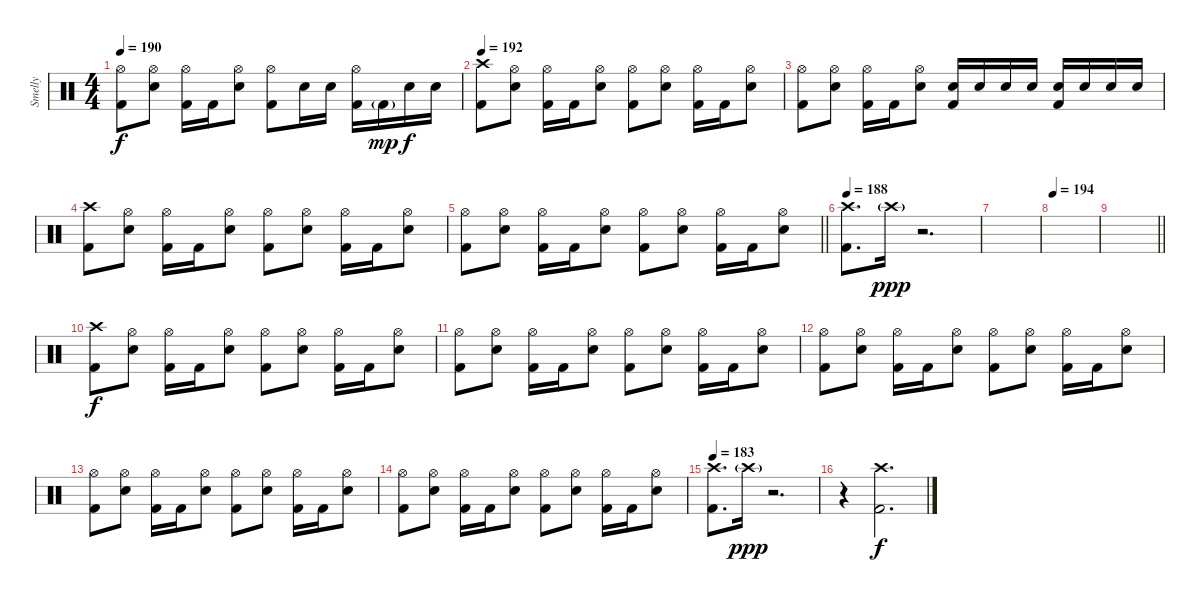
\track ("Smelly" "Smelly") {instrument percussion}
\staff {score}
\articulation defaults
\ts (4 4)
\tempo 190
\clef neutral
\ks c
("Hi-Hat (open)" "Kick (hit) 2").8{dy f} ("Hi-Hat (open)" "Electric Snare (hit)").8 ("Hi-Hat (open)" "Kick (hit) 2").16 "Kick (hit) 2".16 ("Hi-Hat (open)" "Electric Snare (hit)").8 ("Hi-Hat (open)" "Kick (hit) 2").8 "Electric Snare (hit)".16 "Electric Snare (hit)".16 ("Hi-Hat (open)" "Kick (hit) 2").16 "Kick (hit) 2"{g}.16{dy mp} "Electric Snare (hit)".16{dy f} "Electric Snare (hit)".16 |
\tempo 192
("Crash high (hit)" "Kick (hit) 2").8 ("Hi-Hat (open)" "Electric Snare (hit)").8 ("Hi-Hat (open)" "Kick (hit) 2").16 "Kick (hit) 2".16 ("Hi-Hat (open)" "Electric Snare (hit)").8 ("Hi-Hat (open)" "Kick (hit) 2").8 ("Hi-Hat (open)" "Electric Snare (hit)").8 ("Hi-Hat (open)" "Kick (hit) 2").16 "Kick (hit) 2".16 ("Hi-Hat (open)" "Electric Snare (hit)").8 |
("Hi-Hat (open)" "Kick (hit) 2").8 ("Hi-Hat (open)" "Electric Snare (hit)").8 ("Hi-Hat (open)" "Kick (hit) 2").16 "Kick (hit) 2".16 ("Hi-Hat (open)" "Electric Snare (hit)").8 ("Electric Snare (hit)" "Kick (hit) 2").16 "Electric Snare (hit)".16 "Electric Snare (hit)".16 "Electric Snare (hit)".16 ("Electric Snare (hit)" "Kick (hit) 2").16 "Electric Snare (hit)".16 "Electric Snare (hit)".16 "Electric Snare (hit)".16 |
("Crash high (hit)" "Kick (hit) 2").8 ("Hi-Hat (open)" "Electric Snare (hit)").8 ("Hi-Hat (open)" "Kick (hit) 2").16 "Kick (hit) 2".16 ("Hi-Hat (open)" "Electric Snare (hit)").8 ("Hi-Hat (open)" "Kick (hit) 2").8 ("Hi-Hat (open)" "Electric Snare (hit)").8 ("Hi-Hat (open)" "Kick (hit) 2").16 "Kick (hit) 2".16 ("Hi-Hat (open)" "Electric Snare (hit)").8 |
\barLineRight lightlight
("Hi-Hat (open)" "Kick (hit) 2").8 ("Hi-Hat (open)" "Electric Snare (hit)").8 ("Hi-Hat (open)" "Kick (hit) 2").16 "Kick (hit) 2".16 ("Hi-Hat (open)" "Electric Snare (hit)").8 ("Hi-Hat (open)" "Kick (hit) 2").8 ("Hi-Hat (open)" "Electric Snare (hit)").8 ("Hi-Hat (open)" "Kick (hit) 2").16 "Kick (hit) 2".16 ("Hi-Hat (open)" "Electric Snare (hit)").8 |
\section ("" "")
\tempo 188
("Crash high (hit)" "Kick (hit) 2").8{d} "Crash high (hit)"{g}.16{dy ppp} r.2{d} |
|
\tempo 194
|
\barLineRight lightlight
|
\section ("" "")
("Crash high (hit)" "Kick (hit) 2").8{dy f} ("Hi-Hat (open)" "Electric Snare (hit)").8 ("Hi-Hat (open)" "Kick (hit) 2").16 "Kick (hit) 2".16 ("Hi-Hat (open)" "Electric Snare (hit)").8 ("Hi-Hat (open)" "Kick (hit) 2").8 ("Hi-Hat (open)" "Electric Snare (hit)").8 ("Hi-Hat (open)" "Kick (hit) 2").16 "Kick (hit) 2".16 ("Hi-Hat (open)" "Electric Snare (hit)").8 |
("Hi-Hat (open)" "Kick (hit) 2").8 ("Hi-Hat (open)" "Electric Snare (hit)").8 ("Hi-Hat (open)" "Kick (hit) 2").16 "Kick (hit) 2".16 ("Hi-Hat (open)" "Electric Snare (hit)").8 ("Hi-Hat (open)" "Kick (hit) 2").8 ("Hi-Hat (open)" "Electric Snare (hit)").8 ("Hi-Hat (open)" "Kick (hit) 2").16 "Kick (hit) 2".16 ("Hi-Hat (open)" "Electric Snare (hit)").8 |
("Hi-Hat (open)" "Kick (hit) 2").8 ("Hi-Hat (open)" "Electric Snare (hit)").8 ("Hi-Hat (open)" "Kick (hit) 2").16 "Kick (hit) 2".16 ("Hi-Hat (open)" "Electric Snare (hit)").8 ("Hi-Hat (open)" "Kick (hit) 2").8 ("Hi-Hat (open)" "Electric Snare (hit)").8 ("Hi-Hat (open)" "Kick (hit) 2").16 "Kick (hit) 2".16 ("Hi-Hat (open)" "Electric Snare (hit)").8 |
("Hi-Hat (open)" "Kick (hit) 2").8 ("Hi-Hat (open)" "Electric Snare (hit)").8 ("Hi-Hat (open)" "Kick (hit) 2").16 "Kick (hit) 2".16 ("Hi-Hat (open)" "Electric Snare (hit)").8 ("Hi-Hat (open)" "Kick (hit) 2").8 ("Hi-Hat (open)" "Electric Snare (hit)").8 ("Hi-Hat (open)" "Kick (hit) 2").16 "Kick (hit) 2".16 ("Hi-Hat (open)" "Electric Snare (hit)").8 |
("Hi-Hat (open)" "Kick (hit) 2").8 ("Hi-Hat (open)" "Electric Snare (hit)").8 ("Hi-Hat (open)" "Kick (hit) 2").16 "Kick (hit) 2".16 ("Hi-Hat (open)" "Electric Snare (hit)").8 ("Hi-Hat (open)" "Kick (hit) 2").8 ("Hi-Hat (open)" "Electric Snare (hit)").8 ("Hi-Hat (open)" "Kick (hit) 2").16 "Kick (hit) 2".16 ("Hi-Hat (open)" "Electric Snare (hit)").8 |
\tempo 183
("Crash high (hit)" "Kick (hit) 2").8{d} "Crash high (hit)"{g}.16{dy ppp} r.2{d} |
r.4 ("Crash high (hit)" "Kick (hit) 2").2{d dy f}
